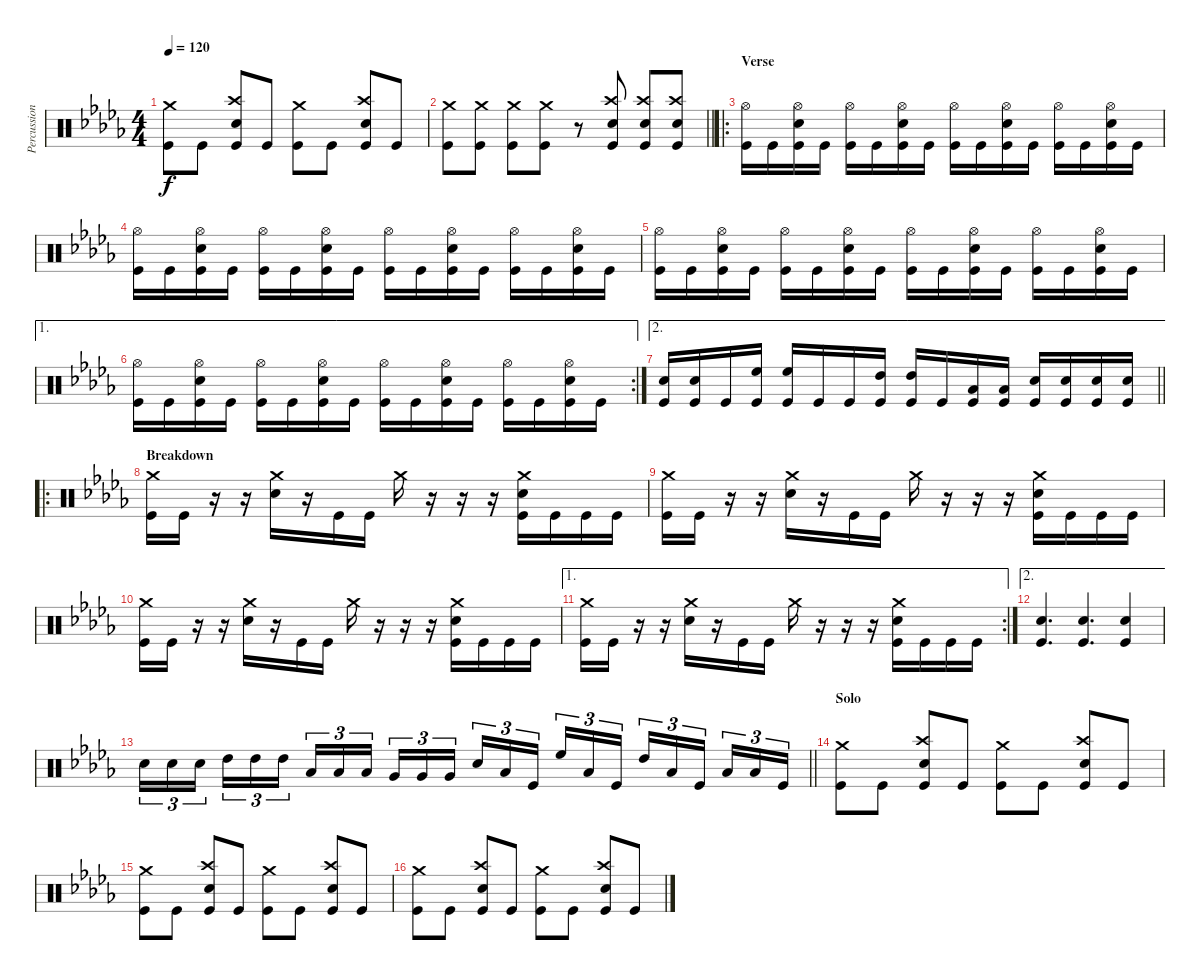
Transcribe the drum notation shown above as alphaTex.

\track ("Percussion" "Percussion") {instrument percussion}
\staff {score}
\articulation defaults
\ts (4 4)
\tempo 120
\clef neutral
\ks bbminor
("Crash medium (hit)" "Kick (hit)").8{dy f} "Kick (hit)".8 ("Crash high (hit)" "Snare (hit) 2" "Kick (hit)").8 "Kick (hit)".8 ("Crash medium (hit)" "Kick (hit)").8 "Kick (hit)".8 ("Crash high (hit)" "Snare (hit) 2" "Kick (hit)").8 "Kick (hit)".8 |
\barLineRight lightlight
("Crash medium (hit)" "Kick (hit)").8 ("Crash medium (hit)" "Kick (hit)").8 ("Crash medium (hit)" "Kick (hit)").8 ("Crash medium (hit)" "Kick (hit)").8 r.8 ("Crash high (hit)" "Snare (hit) 2" "Kick (hit)").8 ("Crash high (hit)" "Snare (hit) 2" "Kick (hit)").8 ("Crash high (hit)" "Snare (hit) 2" "Kick (hit)").8 |
\ro
\section ("" "Verse")
("Hi-Hat (open)" "Kick (hit)").16 "Kick (hit)".16 ("Hi-Hat (open)" "Snare (hit) 2" "Kick (hit)").16 "Kick (hit)".16 ("Hi-Hat (open)" "Kick (hit)").16 "Kick (hit)".16 ("Hi-Hat (open)" "Snare (hit) 2" "Kick (hit)").16 "Kick (hit)".16 ("Hi-Hat (open)" "Kick (hit)").16 "Kick (hit)".16 ("Hi-Hat (open)" "Snare (hit) 2" "Kick (hit)").16 "Kick (hit)".16 ("Hi-Hat (open)" "Kick (hit)").16 "Kick (hit)".16 ("Hi-Hat (open)" "Snare (hit) 2" "Kick (hit)").16 "Kick (hit)".16 |
("Hi-Hat (open)" "Kick (hit)").16 "Kick (hit)".16 ("Hi-Hat (open)" "Snare (hit) 2" "Kick (hit)").16 "Kick (hit)".16 ("Hi-Hat (open)" "Kick (hit)").16 "Kick (hit)".16 ("Hi-Hat (open)" "Snare (hit) 2" "Kick (hit)").16 "Kick (hit)".16 ("Hi-Hat (open)" "Kick (hit)").16 "Kick (hit)".16 ("Hi-Hat (open)" "Snare (hit) 2" "Kick (hit)").16 "Kick (hit)".16 ("Hi-Hat (open)" "Kick (hit)").16 "Kick (hit)".16 ("Hi-Hat (open)" "Snare (hit) 2" "Kick (hit)").16 "Kick (hit)".16 |
("Hi-Hat (open)" "Kick (hit)").16 "Kick (hit)".16 ("Hi-Hat (open)" "Snare (hit) 2" "Kick (hit)").16 "Kick (hit)".16 ("Hi-Hat (open)" "Kick (hit)").16 "Kick (hit)".16 ("Hi-Hat (open)" "Snare (hit) 2" "Kick (hit)").16 "Kick (hit)".16 ("Hi-Hat (open)" "Kick (hit)").16 "Kick (hit)".16 ("Hi-Hat (open)" "Snare (hit) 2" "Kick (hit)").16 "Kick (hit)".16 ("Hi-Hat (open)" "Kick (hit)").16 "Kick (hit)".16 ("Hi-Hat (open)" "Snare (hit) 2" "Kick (hit)").16 "Kick (hit)".16 |
\ae 1
\rc 2
("Hi-Hat (open)" "Kick (hit)").16 "Kick (hit)".16 ("Hi-Hat (open)" "Snare (hit) 2" "Kick (hit)").16 "Kick (hit)".16 ("Hi-Hat (open)" "Kick (hit)").16 "Kick (hit)".16 ("Hi-Hat (open)" "Snare (hit) 2" "Kick (hit)").16 "Kick (hit)".16 ("Hi-Hat (open)" "Kick (hit)").16 "Kick (hit)".16 ("Hi-Hat (open)" "Snare (hit) 2" "Kick (hit)").16 "Kick (hit)".16 ("Hi-Hat (open)" "Kick (hit)").16 "Kick (hit)".16 ("Hi-Hat (open)" "Snare (hit) 2" "Kick (hit)").16 "Kick (hit)".16 |
\ae 2
\barLineRight lightlight
("Snare (hit) 2" "Kick (hit)").16 ("Snare (hit) 2" "Kick (hit)").16 "Kick (hit)".16 ("High Floor Tom (hit)" "Kick (hit)").16 ("High Floor Tom (hit)" "Kick (hit)").16 "Kick (hit)".16 "Kick (hit)".16 ("High Tom (hit)" "Kick (hit)").16 ("High Tom (hit)" "Kick (hit)").16 "Kick (hit)".16 ("Low Tom (hit)" "Kick (hit)").16 ("Low Tom (hit)" "Kick (hit)").16 ("Snare (hit) 2" "Kick (hit)").16 ("Snare (hit) 2" "Kick (hit)").16 ("Snare (hit) 2" "Kick (hit)").16 ("Snare (hit) 2" "Kick (hit)").16 |
\ro
\section ("" "Breakdown")
("Crash medium (hit)" "Kick (hit)").16 "Kick (hit)".16 r.16 r.16 ("Crash medium (hit)" "Snare (hit) 2").16 r.16 "Kick (hit)".16 "Kick (hit)".16 "Crash medium (hit)".16 r.16 r.16 r.16 ("Crash medium (hit)" "Snare (hit) 2" "Kick (hit)").16 "Kick (hit)".16 "Kick (hit)".16 "Kick (hit)".16 |
("Crash medium (hit)" "Kick (hit)").16 "Kick (hit)".16 r.16 r.16 ("Crash medium (hit)" "Snare (hit) 2").16 r.16 "Kick (hit)".16 "Kick (hit)".16 "Crash medium (hit)".16 r.16 r.16 r.16 ("Crash medium (hit)" "Snare (hit) 2" "Kick (hit)").16 "Kick (hit)".16 "Kick (hit)".16 "Kick (hit)".16 |
("Crash medium (hit)" "Kick (hit)").16 "Kick (hit)".16 r.16 r.16 ("Crash medium (hit)" "Snare (hit) 2").16 r.16 "Kick (hit)".16 "Kick (hit)".16 "Crash medium (hit)".16 r.16 r.16 r.16 ("Crash medium (hit)" "Snare (hit) 2" "Kick (hit)").16 "Kick (hit)".16 "Kick (hit)".16 "Kick (hit)".16 |
\ae 1
\rc 2
("Crash medium (hit)" "Kick (hit)").16 "Kick (hit)".16 r.16 r.16 ("Crash medium (hit)" "Snare (hit) 2").16 r.16 "Kick (hit)".16 "Kick (hit)".16 "Crash medium (hit)".16 r.16 r.16 r.16 ("Crash medium (hit)" "Snare (hit) 2" "Kick (hit)").16 "Kick (hit)".16 "Kick (hit)".16 "Kick (hit)".16 |
\ae 2
("Snare (hit) 2" "Kick (hit)").4{d} ("Snare (hit) 2" "Kick (hit)").4{d} ("Snare (hit) 2" "Kick (hit)").4 |
\barLineRight lightlight "Snare (hit) 2".16{tu (3 2)} "Snare (hit) 2".16{tu (3 2)} "Snare (hit) 2".16{tu (3 2) beam splitsecondary} "High Tom (hit)".16{tu (3 2)} "High Tom (hit)".16{tu (3 2)} "High Tom (hit)".16{tu (3 2)} "Low Tom (hit)".16{tu (3 2)} "Low Tom (hit)".16{tu (3 2)} "Low Tom (hit)".16{tu (3 2) beam splitsecondary} "Very Low Tom (hit)".16{tu (3 2)} "Very Low Tom (hit)".16{tu (3 2)} "Very Low Tom (hit)".16{tu (3 2)} "Snare (hit) 2".16{tu (3 2)} "Low Floor Tom (hit)".16{tu (3 2)} "Kick (hit)".16{tu (3 2) beam splitsecondary} "High Floor Tom (hit)".16{tu (3 2)} "Low Floor Tom (hit)".16{tu (3 2)} "Kick (hit)".16{tu (3 2)} "High Tom (hit)".16{tu (3 2)} "Low Floor Tom (hit)".16{tu (3 2)} "Kick (hit)".16{tu (3 2) beam splitsecondary} "Low Tom (hit)".16{tu (3 2)} "Low Floor Tom (hit)".16{tu (3 2)} "Kick (hit)".16{tu (3 2)}
|
\section ("" "Solo")
("Crash medium (hit)" "Kick (hit)").8 "Kick (hit)".8 ("Crash high (hit)" "Snare (hit) 2" "Kick (hit)").8 "Kick (hit)".8 ("Crash medium (hit)" "Kick (hit)").8 "Kick (hit)".8 ("Crash high (hit)" "Snare (hit) 2" "Kick (hit)").8 "Kick (hit)".8 |
("Crash medium (hit)" "Kick (hit)").8 "Kick (hit)".8 ("Crash high (hit)" "Snare (hit) 2" "Kick (hit)").8 "Kick (hit)".8 ("Crash medium (hit)" "Kick (hit)").8 "Kick (hit)".8 ("Crash high (hit)" "Snare (hit) 2" "Kick (hit)").8 "Kick (hit)".8 |
("Crash medium (hit)" "Kick (hit)").8 "Kick (hit)".8 ("Crash high (hit)" "Snare (hit) 2" "Kick (hit)").8 "Kick (hit)".8 ("Crash medium (hit)" "Kick (hit)").8 "Kick (hit)".8 ("Crash high (hit)" "Snare (hit) 2" "Kick (hit)").8 "Kick (hit)".8
